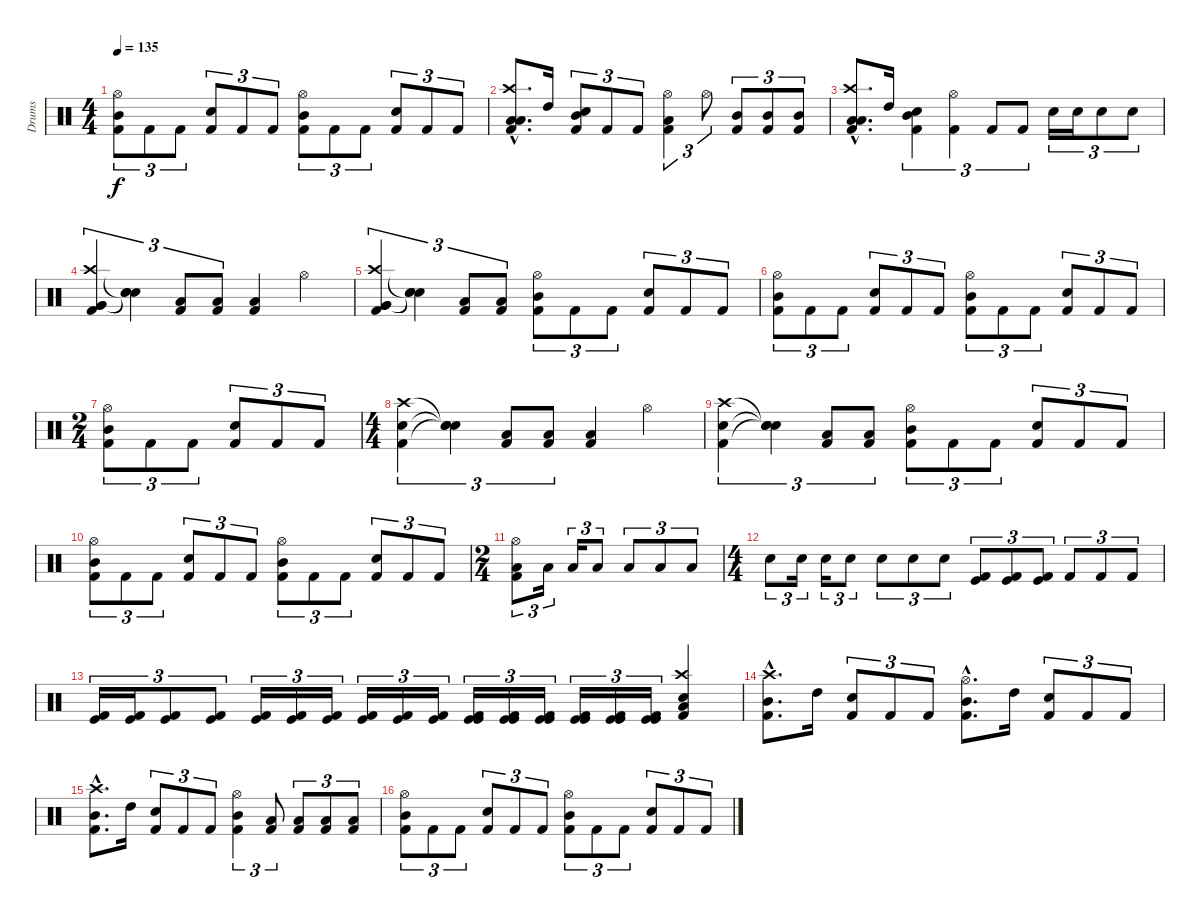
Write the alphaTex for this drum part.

\track ("Drums" "Drums") {instrument percussion}
\staff {score}
\articulation defaults
\ts (4 4)
\tempo 135
\clef neutral
\ks c
("Hi-Hat (open)" "Mid Tom (hit)" "Kick (hit) 2").8{tu (3 2) dy f} "Kick (hit) 2".8{tu (3 2)} "Kick (hit) 2".8{tu (3 2)} ("Snare (hit) 2" "Kick (hit) 2").8{tu (3 2)} "Kick (hit) 2".8{tu (3 2)} "Kick (hit) 2".8{tu (3 2)} ("Hi-Hat (open)" "Mid Tom (hit)" "Kick (hit) 2").8{tu (3 2)} "Kick (hit) 2".8{tu (3 2)} "Kick (hit) 2".8{tu (3 2)} ("Snare (hit) 2" "Kick (hit) 2").8{tu (3 2)} "Kick (hit) 2".8{tu (3 2)} "Kick (hit) 2".8{tu (3 2)} |
("Crash high (hit)"{hac} "Low Tom (hit)"{hac} "Low Tom (hit)"{hac} "Kick (hit) 2"{hac}).8{d} "High Tom (hit)".16 ("Mid Tom (hit)" "Snare (hit) 2" "Kick (hit) 2").8{tu (3 2)} "Kick (hit) 2".8{tu (3 2)} "Kick (hit) 2".8{tu (3 2)} ("Hi-Hat (open)" "Low Tom (hit)" "Kick (hit) 2").4{tu (3 2)} "Hi-Hat (open)".8{tu (3 2)} ("Mid Tom (hit)" "Kick (hit) 2").8{tu (3 2)} ("Mid Tom (hit)" "Kick (hit) 2").8{tu (3 2)} ("Mid Tom (hit)" "Kick (hit) 2").8{tu (3 2)} |
("Crash high (hit)"{hac} "Low Tom (hit)"{hac} "Low Tom (hit)"{hac} "Kick (hit) 2"{hac}).8{d} "High Tom (hit)".16 ("Mid Tom (hit)" "Snare (hit) 2" "Kick (hit) 2").4{tu (3 2)} ("Hi-Hat (open)" "Kick (hit) 2").4{tu (3 2)} "Kick (hit) 2".8{tu (3 2)} "Kick (hit) 2".8{tu (3 2)} "Snare (hit) 2".16{tu (3 2)} "Snare (hit) 2".16{tu (3 2)} "Snare (hit) 2".8{tu (3 2)} "Snare (hit) 2".8{tu (3 2)} |
("Crash high (hit)" "Very Low Tom (hit)" "Very Low Tom (hit)" "Kick (hit) 2").4{tu (3 2)} ("Snare (hit)"{t} "Snare (hit)"{t} "Snare (hit)"{t}).4{tu (3 2)} ("Low Tom (hit)" "Kick (hit) 2").8{tu (3 2)} ("Low Tom (hit)" "Kick (hit) 2").8{tu (3 2)} ("Low Tom (hit)" "Kick (hit) 2").4 "Hi-Hat (open)".4 |
("Crash high (hit)" "Very Low Tom (hit)" "Very Low Tom (hit)" "Kick (hit) 2").4{tu (3 2)} ("Snare (hit)"{t} "Snare (hit)"{t} "Snare (hit)"{t}).4{tu (3 2)} ("Low Tom (hit)" "Kick (hit) 2").8{tu (3 2)} ("Low Tom (hit)" "Kick (hit) 2").8{tu (3 2)} ("Hi-Hat (open)" "Mid Tom (hit)" "Kick (hit) 2").8{tu (3 2)} "Kick (hit) 2".8{tu (3 2)} "Kick (hit) 2".8{tu (3 2)} ("Snare (hit) 2" "Kick (hit) 2").8{tu (3 2)} "Kick (hit) 2".8{tu (3 2)} "Kick (hit) 2".8{tu (3 2)} |
("Hi-Hat (open)" "Mid Tom (hit)" "Kick (hit) 2").8{tu (3 2)} "Kick (hit) 2".8{tu (3 2)} "Kick (hit) 2".8{tu (3 2)} ("Snare (hit) 2" "Kick (hit) 2").8{tu (3 2)} "Kick (hit) 2".8{tu (3 2)} "Kick (hit) 2".8{tu (3 2)} ("Hi-Hat (open)" "Mid Tom (hit)" "Kick (hit) 2").8{tu (3 2)} "Kick (hit) 2".8{tu (3 2)} "Kick (hit) 2".8{tu (3 2)} ("Snare (hit) 2" "Kick (hit) 2").8{tu (3 2)} "Kick (hit) 2".8{tu (3 2)} "Kick (hit) 2".8{tu (3 2)} |
\ts (2 4)
("Hi-Hat (open)" "Mid Tom (hit)" "Kick (hit) 2").8{tu (3 2)} "Kick (hit) 2".8{tu (3 2)} "Kick (hit) 2".8{tu (3 2)} ("Snare (hit) 2" "Kick (hit) 2").8{tu (3 2)} "Kick (hit) 2".8{tu (3 2)} "Kick (hit) 2".8{tu (3 2)} |
\ts (4 4)
("Crash high (hit)" "Snare (hit) 2" "Kick (hit) 2").4{tu (3 2)} ("Snare (hit)"{t} "Snare (hit)"{t} "Snare (hit)"{t}).4{tu (3 2)} ("Low Tom (hit)" "Kick (hit) 2").8{tu (3 2)} ("Low Tom (hit)" "Kick (hit) 2").8{tu (3 2)} ("Low Tom (hit)" "Kick (hit) 2").4 "Hi-Hat (open)".4 |
("Crash high (hit)" "Snare (hit) 2" "Kick (hit) 2").4{tu (3 2)} ("Snare (hit)"{t} "Snare (hit)"{t} "Snare (hit)"{t}).4{tu (3 2)} ("Low Tom (hit)" "Kick (hit) 2").8{tu (3 2)} ("Low Tom (hit)" "Kick (hit) 2").8{tu (3 2)} ("Hi-Hat (open)" "Mid Tom (hit)" "Kick (hit) 2").8{tu (3 2)} "Kick (hit) 2".8{tu (3 2)} "Kick (hit) 2".8{tu (3 2)} ("Snare (hit) 2" "Kick (hit) 2").8{tu (3 2)} "Kick (hit) 2".8{tu (3 2)} "Kick (hit) 2".8{tu (3 2)} |
("Hi-Hat (open)" "Mid Tom (hit)" "Kick (hit) 2").8{tu (3 2)} "Kick (hit) 2".8{tu (3 2)} "Kick (hit) 2".8{tu (3 2)} ("Snare (hit) 2" "Kick (hit) 2").8{tu (3 2)} "Kick (hit) 2".8{tu (3 2)} "Kick (hit) 2".8{tu (3 2)} ("Hi-Hat (open)" "Mid Tom (hit)" "Kick (hit) 2").8{tu (3 2)} "Kick (hit) 2".8{tu (3 2)} "Kick (hit) 2".8{tu (3 2)} ("Snare (hit) 2" "Kick (hit) 2").8{tu (3 2)} "Kick (hit) 2".8{tu (3 2)} "Kick (hit) 2".8{tu (3 2)} |
\ts (2 4)
("Hi-Hat (open)" "Low Tom (hit)" "Kick (hit) 2").8{tu (3 2)} "Low Tom (hit)".16{tu (3 2)} "Low Tom (hit)".16{tu (3 2)} "Low Tom (hit)".8{tu (3 2)} "Low Tom (hit)".8{tu (3 2)} "Low Tom (hit)".8{tu (3 2)} "Low Tom (hit)".8{tu (3 2)} |
\ts (4 4)
"Snare (hit) 2".8{tu (3 2)} "Snare (hit) 2".16{tu (3 2)} "Snare (hit) 2".16{tu (3 2)} "Snare (hit) 2".8{tu (3 2)} "Snare (hit) 2".8{tu (3 2)} "Snare (hit) 2".8{tu (3 2)} "Snare (hit) 2".8{tu (3 2)} ("Kick (hit)" "Kick (hit) 2").8{tu (3 2)} ("Kick (hit)" "Kick (hit) 2").8{tu (3 2)} ("Kick (hit)" "Kick (hit) 2").8{tu (3 2)} "Kick (hit) 2".8{tu (3 2)} "Kick (hit) 2".8{tu (3 2)} "Kick (hit) 2".8{tu (3 2)} |
("Kick (hit)" "Kick (hit) 2").16{tu (3 2)} ("Kick (hit)" "Kick (hit) 2").16{tu (3 2)} ("Kick (hit)" "Kick (hit) 2").8{tu (3 2)} ("Kick (hit)" "Kick (hit) 2").8{tu (3 2)} ("Kick (hit)" "Kick (hit) 2").16{tu (3 2)} ("Kick (hit)" "Kick (hit) 2").16{tu (3 2)} ("Kick (hit)" "Kick (hit) 2").16{tu (3 2)} ("Kick (hit)" "Kick (hit) 2").16{tu (3 2)} ("Kick (hit)" "Kick (hit) 2").16{tu (3 2)} ("Kick (hit)" "Kick (hit) 2").16{tu (3 2)} ("Kick (hit)" "Kick (hit)" "Kick (hit) 2").16{tu (3 2)} ("Kick (hit)" "Kick (hit)" "Kick (hit) 2").16{tu (3 2)} ("Kick (hit)" "Kick (hit)" "Kick (hit) 2").16{tu (3 2)} ("Kick (hit)" "Kick (hit)" "Kick (hit) 2").16{tu (3 2)} ("Kick (hit)" "Kick (hit)" "Kick (hit) 2").16{tu (3 2)} ("Kick (hit)" "Kick (hit)" "Kick (hit) 2").16{tu (3 2)} ("Crash high (hit)" "Snare (hit) 2" "Low Floor Tom (hit)" "Kick (hit) 2").4 |
("Crash high (hit)"{hac} "Mid Tom (hit)"{hac} "Kick (hit) 2"{hac}).8{d} "High Tom (hit)".16 ("Snare (hit) 2" "Kick (hit) 2").8{tu (3 2)} "Kick (hit) 2".8{tu (3 2)} "Kick (hit) 2".8{tu (3 2)} ("Hi-Hat (open)"{hac} "Mid Tom (hit)"{hac} "Kick (hit) 2"{hac}).8{d} "High Tom (hit)".16 ("Snare (hit) 2" "Kick (hit) 2").8{tu (3 2)} "Kick (hit) 2".8{tu (3 2)} "Kick (hit) 2".8{tu (3 2)} |
("Crash high (hit)"{hac} "Mid Tom (hit)"{hac} "Kick (hit) 2"{hac}).8{d} "High Tom (hit)".16 ("Snare (hit) 2" "Kick (hit) 2").8{tu (3 2)} "Kick (hit) 2".8{tu (3 2)} "Kick (hit) 2".8{tu (3 2)} ("Hi-Hat (open)" "Mid Tom (hit)" "Kick (hit) 2").4{tu (3 2)} ("Low Tom (hit)" "Kick (hit) 2").8{tu (3 2)} ("Low Tom (hit)" "Kick (hit) 2").8{tu (3 2)} ("Low Tom (hit)" "Kick (hit) 2").8{tu (3 2)} ("Low Tom (hit)" "Kick (hit) 2").8{tu (3 2)} |
("Hi-Hat (open)" "Mid Tom (hit)" "Kick (hit) 2").8{tu (3 2)} "Kick (hit) 2".8{tu (3 2)} "Kick (hit) 2".8{tu (3 2)} ("Snare (hit) 2" "Kick (hit) 2").8{tu (3 2)} "Kick (hit) 2".8{tu (3 2)} "Kick (hit) 2".8{tu (3 2)} ("Hi-Hat (open)" "Mid Tom (hit)" "Kick (hit) 2").8{tu (3 2)} "Kick (hit) 2".8{tu (3 2)} "Kick (hit) 2".8{tu (3 2)} ("Snare (hit) 2" "Kick (hit) 2").8{tu (3 2)} "Kick (hit) 2".8{tu (3 2)} "Kick (hit) 2".8{tu (3 2)}
